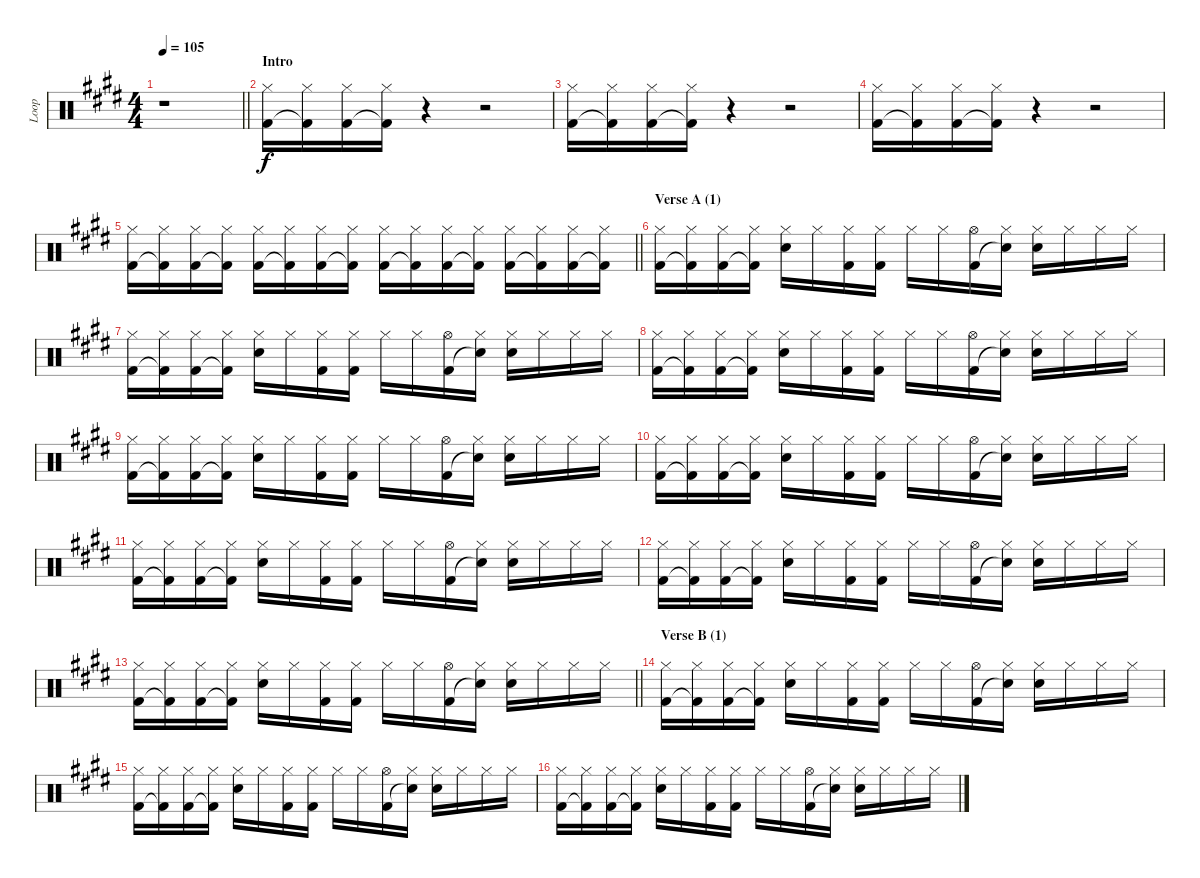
\track ("Loop" "Loop") {instrument percussion}
\staff {score}
\articulation defaults
\ts (4 4)
\tempo 105
\clef neutral
\barLineRight lightlight
\ks e
r.1{dy f} |
\section ("" "Intro")
("Hi-Hat (closed)" "Kick (hit) 2").16 ("Hi-Hat (closed)" "Kick (hit) 2"{t}).16 ("Hi-Hat (closed)" "Kick (hit) 2").16 ("Hi-Hat (closed)" "Kick (hit) 2"{t}).16 r.4 r.2 |
("Hi-Hat (closed)" "Kick (hit) 2").16 ("Hi-Hat (closed)" "Kick (hit) 2"{t}).16 ("Hi-Hat (closed)" "Kick (hit) 2").16 ("Hi-Hat (closed)" "Kick (hit) 2"{t}).16 r.4 r.2 |
("Hi-Hat (closed)" "Kick (hit) 2").16 ("Hi-Hat (closed)" "Kick (hit) 2"{t}).16 ("Hi-Hat (closed)" "Kick (hit) 2").16 ("Hi-Hat (closed)" "Kick (hit) 2"{t}).16 r.4 r.2 |
\barLineRight lightlight
("Hi-Hat (closed)" "Kick (hit) 2").16 ("Hi-Hat (closed)" "Kick (hit) 2"{t}).16 ("Hi-Hat (closed)" "Kick (hit) 2").16 ("Hi-Hat (closed)" "Kick (hit) 2"{t}).16 ("Hi-Hat (closed)" "Kick (hit) 2").16 ("Hi-Hat (closed)" "Kick (hit) 2"{t}).16 ("Hi-Hat (closed)" "Kick (hit) 2").16 ("Hi-Hat (closed)" "Kick (hit) 2"{t}).16 ("Hi-Hat (closed)" "Kick (hit) 2").16 ("Hi-Hat (closed)" "Kick (hit) 2"{t}).16 ("Hi-Hat (closed)" "Kick (hit) 2").16 ("Hi-Hat (closed)" "Kick (hit) 2"{t}).16 ("Hi-Hat (closed)" "Kick (hit) 2").16 ("Hi-Hat (closed)" "Kick (hit) 2"{t}).16 ("Hi-Hat (closed)" "Kick (hit) 2").16 ("Hi-Hat (closed)" "Kick (hit) 2"{t}).16 |
\section ("" "Verse A (1)")
("Hi-Hat (closed)" "Kick (hit) 2").16 ("Hi-Hat (closed)" "Kick (hit) 2"{t}).16 ("Hi-Hat (closed)" "Kick (hit) 2").16 ("Hi-Hat (closed)" "Kick (hit) 2"{t}).16 ("Hi-Hat (closed)" "Electric Snare (hit)").16 "Hi-Hat (closed)".16 ("Hi-Hat (closed)" "Kick (hit) 2").16 ("Hi-Hat (closed)" "Kick (hit) 2").16 "Hi-Hat (closed)".16 "Hi-Hat (closed)".16 ("Hi-Hat (open)" "Kick (hit) 2").16 ("Hi-Hat (closed)" "Snare (hit)"{t}).16 ("Hi-Hat (closed)" "Electric Snare (hit)").16 "Hi-Hat (closed)".16 "Hi-Hat (closed)".16 "Hi-Hat (closed)".16 |
("Hi-Hat (closed)" "Kick (hit) 2").16 ("Hi-Hat (closed)" "Kick (hit) 2"{t}).16 ("Hi-Hat (closed)" "Kick (hit) 2").16 ("Hi-Hat (closed)" "Kick (hit) 2"{t}).16 ("Hi-Hat (closed)" "Electric Snare (hit)").16 "Hi-Hat (closed)".16 ("Hi-Hat (closed)" "Kick (hit) 2").16 ("Hi-Hat (closed)" "Kick (hit) 2").16 "Hi-Hat (closed)".16 "Hi-Hat (closed)".16 ("Hi-Hat (open)" "Kick (hit) 2").16 ("Hi-Hat (closed)" "Snare (hit)"{t}).16 ("Hi-Hat (closed)" "Electric Snare (hit)").16 "Hi-Hat (closed)".16 "Hi-Hat (closed)".16 "Hi-Hat (closed)".16 |
("Hi-Hat (closed)" "Kick (hit) 2").16 ("Hi-Hat (closed)" "Kick (hit) 2"{t}).16 ("Hi-Hat (closed)" "Kick (hit) 2").16 ("Hi-Hat (closed)" "Kick (hit) 2"{t}).16 ("Hi-Hat (closed)" "Electric Snare (hit)").16 "Hi-Hat (closed)".16 ("Hi-Hat (closed)" "Kick (hit) 2").16 ("Hi-Hat (closed)" "Kick (hit) 2").16 "Hi-Hat (closed)".16 "Hi-Hat (closed)".16 ("Hi-Hat (open)" "Kick (hit) 2").16 ("Hi-Hat (closed)" "Snare (hit)"{t}).16 ("Hi-Hat (closed)" "Electric Snare (hit)").16 "Hi-Hat (closed)".16 "Hi-Hat (closed)".16 "Hi-Hat (closed)".16 |
("Hi-Hat (closed)" "Kick (hit) 2").16 ("Hi-Hat (closed)" "Kick (hit) 2"{t}).16 ("Hi-Hat (closed)" "Kick (hit) 2").16 ("Hi-Hat (closed)" "Kick (hit) 2"{t}).16 ("Hi-Hat (closed)" "Electric Snare (hit)").16 "Hi-Hat (closed)".16 ("Hi-Hat (closed)" "Kick (hit) 2").16 ("Hi-Hat (closed)" "Kick (hit) 2").16 "Hi-Hat (closed)".16 "Hi-Hat (closed)".16 ("Hi-Hat (open)" "Kick (hit) 2").16 ("Hi-Hat (closed)" "Snare (hit)"{t}).16 ("Hi-Hat (closed)" "Electric Snare (hit)").16 "Hi-Hat (closed)".16 "Hi-Hat (closed)".16 "Hi-Hat (closed)".16 |
("Hi-Hat (closed)" "Kick (hit) 2").16 ("Hi-Hat (closed)" "Kick (hit) 2"{t}).16 ("Hi-Hat (closed)" "Kick (hit) 2").16 ("Hi-Hat (closed)" "Kick (hit) 2"{t}).16 ("Hi-Hat (closed)" "Electric Snare (hit)").16 "Hi-Hat (closed)".16 ("Hi-Hat (closed)" "Kick (hit) 2").16 ("Hi-Hat (closed)" "Kick (hit) 2").16 "Hi-Hat (closed)".16 "Hi-Hat (closed)".16 ("Hi-Hat (open)" "Kick (hit) 2").16 ("Hi-Hat (closed)" "Snare (hit)"{t}).16 ("Hi-Hat (closed)" "Electric Snare (hit)").16 "Hi-Hat (closed)".16 "Hi-Hat (closed)".16 "Hi-Hat (closed)".16 |
("Hi-Hat (closed)" "Kick (hit) 2").16 ("Hi-Hat (closed)" "Kick (hit) 2"{t}).16 ("Hi-Hat (closed)" "Kick (hit) 2").16 ("Hi-Hat (closed)" "Kick (hit) 2"{t}).16 ("Hi-Hat (closed)" "Electric Snare (hit)").16 "Hi-Hat (closed)".16 ("Hi-Hat (closed)" "Kick (hit) 2").16 ("Hi-Hat (closed)" "Kick (hit) 2").16 "Hi-Hat (closed)".16 "Hi-Hat (closed)".16 ("Hi-Hat (open)" "Kick (hit) 2").16 ("Hi-Hat (closed)" "Snare (hit)"{t}).16 ("Hi-Hat (closed)" "Electric Snare (hit)").16 "Hi-Hat (closed)".16 "Hi-Hat (closed)".16 "Hi-Hat (closed)".16 |
("Hi-Hat (closed)" "Kick (hit) 2").16 ("Hi-Hat (closed)" "Kick (hit) 2"{t}).16 ("Hi-Hat (closed)" "Kick (hit) 2").16 ("Hi-Hat (closed)" "Kick (hit) 2"{t}).16 ("Hi-Hat (closed)" "Electric Snare (hit)").16 "Hi-Hat (closed)".16 ("Hi-Hat (closed)" "Kick (hit) 2").16 ("Hi-Hat (closed)" "Kick (hit) 2").16 "Hi-Hat (closed)".16 "Hi-Hat (closed)".16 ("Hi-Hat (open)" "Kick (hit) 2").16 ("Hi-Hat (closed)" "Snare (hit)"{t}).16 ("Hi-Hat (closed)" "Electric Snare (hit)").16 "Hi-Hat (closed)".16 "Hi-Hat (closed)".16 "Hi-Hat (closed)".16 |
\barLineRight lightlight
("Hi-Hat (closed)" "Kick (hit) 2").16 ("Hi-Hat (closed)" "Kick (hit) 2"{t}).16 ("Hi-Hat (closed)" "Kick (hit) 2").16 ("Hi-Hat (closed)" "Kick (hit) 2"{t}).16 ("Hi-Hat (closed)" "Electric Snare (hit)").16 "Hi-Hat (closed)".16 ("Hi-Hat (closed)" "Kick (hit) 2").16 ("Hi-Hat (closed)" "Kick (hit) 2").16 "Hi-Hat (closed)".16 "Hi-Hat (closed)".16 ("Hi-Hat (open)" "Kick (hit) 2").16 ("Hi-Hat (closed)" "Snare (hit)"{t}).16 ("Hi-Hat (closed)" "Electric Snare (hit)").16 "Hi-Hat (closed)".16 "Hi-Hat (closed)".16 "Hi-Hat (closed)".16 |
\section ("" "Verse B (1)")
("Hi-Hat (closed)" "Kick (hit) 2").16 ("Hi-Hat (closed)" "Kick (hit) 2"{t}).16 ("Hi-Hat (closed)" "Kick (hit) 2").16 ("Hi-Hat (closed)" "Kick (hit) 2"{t}).16 ("Hi-Hat (closed)" "Electric Snare (hit)").16 "Hi-Hat (closed)".16 ("Hi-Hat (closed)" "Kick (hit) 2").16 ("Hi-Hat (closed)" "Kick (hit) 2").16 "Hi-Hat (closed)".16 "Hi-Hat (closed)".16 ("Hi-Hat (open)" "Kick (hit) 2").16 ("Hi-Hat (closed)" "Snare (hit)"{t}).16 ("Hi-Hat (closed)" "Electric Snare (hit)").16 "Hi-Hat (closed)".16 "Hi-Hat (closed)".16 "Hi-Hat (closed)".16 |
("Hi-Hat (closed)" "Kick (hit) 2").16 ("Hi-Hat (closed)" "Kick (hit) 2"{t}).16 ("Hi-Hat (closed)" "Kick (hit) 2").16 ("Hi-Hat (closed)" "Kick (hit) 2"{t}).16 ("Hi-Hat (closed)" "Electric Snare (hit)").16 "Hi-Hat (closed)".16 ("Hi-Hat (closed)" "Kick (hit) 2").16 ("Hi-Hat (closed)" "Kick (hit) 2").16 "Hi-Hat (closed)".16 "Hi-Hat (closed)".16 ("Hi-Hat (open)" "Kick (hit) 2").16 ("Hi-Hat (closed)" "Snare (hit)"{t}).16 ("Hi-Hat (closed)" "Electric Snare (hit)").16 "Hi-Hat (closed)".16 "Hi-Hat (closed)".16 "Hi-Hat (closed)".16 |
("Hi-Hat (closed)" "Kick (hit) 2").16 ("Hi-Hat (closed)" "Kick (hit) 2"{t}).16 ("Hi-Hat (closed)" "Kick (hit) 2").16 ("Hi-Hat (closed)" "Kick (hit) 2"{t}).16 ("Hi-Hat (closed)" "Electric Snare (hit)").16 "Hi-Hat (closed)".16 ("Hi-Hat (closed)" "Kick (hit) 2").16 ("Hi-Hat (closed)" "Kick (hit) 2").16 "Hi-Hat (closed)".16 "Hi-Hat (closed)".16 ("Hi-Hat (open)" "Kick (hit) 2").16 ("Hi-Hat (closed)" "Snare (hit)"{t}).16 ("Hi-Hat (closed)" "Electric Snare (hit)").16 "Hi-Hat (closed)".16 "Hi-Hat (closed)".16 "Hi-Hat (closed)".16
